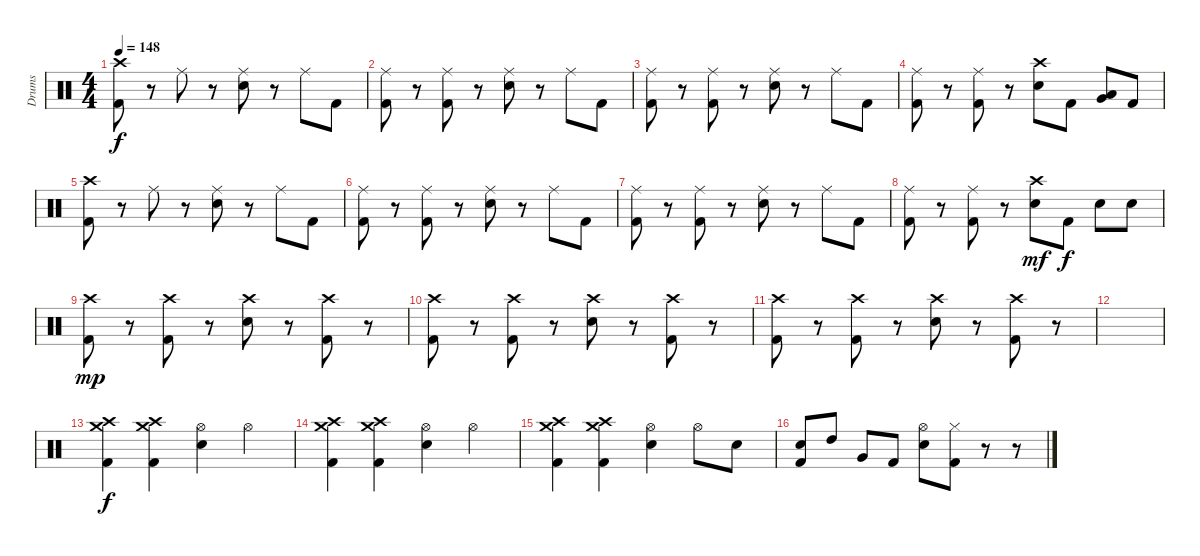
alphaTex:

\track ("Drums" "Drums") {instrument percussion}
\staff {score}
\articulation defaults
\ts (4 4)
\tempo 148
\clef neutral
\ks c
("Crash high (hit)" "Kick (hit) 2").8{dy f} r.8 "Ride (middle)".8 r.8 ("Ride (middle)" "Snare (hit) 2").8 r.8 "Ride (middle)".8 "Kick (hit) 2".8 |
("Ride (middle)" "Kick (hit) 2").8 r.8 ("Ride (middle)" "Kick (hit) 2").8 r.8 ("Ride (middle)" "Snare (hit) 2").8 r.8 "Ride (middle)".8 "Kick (hit) 2".8 |
("Ride (middle)" "Kick (hit) 2").8 r.8 ("Ride (middle)" "Kick (hit) 2").8 r.8 ("Ride (middle)" "Snare (hit) 2").8 r.8 "Ride (middle)".8 "Kick (hit) 2".8 |
("Ride (middle)" "Kick (hit) 2").8 r.8 ("Ride (middle)" "Kick (hit) 2").8 r.8 ("Crash high (hit)" "Snare (hit) 2").8 "Kick (hit) 2".8 ("Very Low Tom (hit)" "Low Floor Tom (hit)").8 "Kick (hit) 2".8 |
("Crash high (hit)" "Kick (hit) 2").8 r.8 "Ride (middle)".8 r.8 ("Ride (middle)" "Snare (hit) 2").8 r.8 "Ride (middle)".8 "Kick (hit) 2".8 |
("Ride (middle)" "Kick (hit) 2").8 r.8 ("Ride (middle)" "Kick (hit) 2").8 r.8 ("Ride (middle)" "Snare (hit) 2").8 r.8 "Ride (middle)".8 "Kick (hit) 2".8 |
("Ride (middle)" "Kick (hit) 2").8 r.8 ("Ride (middle)" "Kick (hit) 2").8 r.8 ("Ride (middle)" "Snare (hit) 2").8 r.8 "Ride (middle)".8 "Kick (hit) 2".8 |
("Ride (middle)" "Kick (hit) 2").8 r.8 ("Ride (middle)" "Kick (hit) 2").8 r.8 ("Crash high (hit)" "Snare (hit) 2").8{dy mf} "Kick (hit) 2".8{dy f} "Snare (hit) 2".8 "Snare (hit) 2".8 |
("Crash high (hit)" "Kick (hit) 2").8{dy mp} r.8 ("Crash high (hit)" "Kick (hit) 2").8 r.8 ("Crash high (hit)" "Snare (hit) 2").8 r.8 ("Crash high (hit)" "Kick (hit) 2").8 r.8 |
("Crash high (hit)" "Kick (hit) 2").8 r.8 ("Crash high (hit)" "Kick (hit) 2").8 r.8 ("Crash high (hit)" "Snare (hit) 2").8 r.8 ("Crash high (hit)" "Kick (hit) 2").8 r.8 |
("Crash high (hit)" "Kick (hit) 2").8 r.8 ("Crash high (hit)" "Kick (hit) 2").8 r.8 ("Crash high (hit)" "Snare (hit) 2").8 r.8 ("Crash high (hit)" "Kick (hit) 2").8 r.8 |
|
("Crash high (hit)" "Crash medium (hit)" "Kick (hit) 2").4{dy f} ("Crash high (hit)" "Crash medium (hit)" "Kick (hit) 2").4 ("Hi-Hat (open)" "Snare (hit) 2").4 "Hi-Hat (open)".4 |
("Crash high (hit)" "Crash medium (hit)" "Kick (hit) 2").4 ("Crash high (hit)" "Crash medium (hit)" "Kick (hit) 2").4 ("Hi-Hat (open)" "Snare (hit) 2").4 "Hi-Hat (open)".4 |
("Crash high (hit)" "Crash medium (hit)" "Kick (hit) 2").4 ("Crash high (hit)" "Crash medium (hit)" "Kick (hit) 2").4 ("Hi-Hat (open)" "Snare (hit) 2").4 "Hi-Hat (open)".8 "Snare (hit) 2".8 |
("Snare (hit) 2" "Kick (hit) 2").8 "High Tom (hit)".8 "Very Low Tom (hit)".8 "Kick (hit) 2".8 ("Hi-Hat (open)" "Snare (hit) 2").8 ("Hi-Hat (closed)" "Kick (hit) 2").8 r.8 r.8
